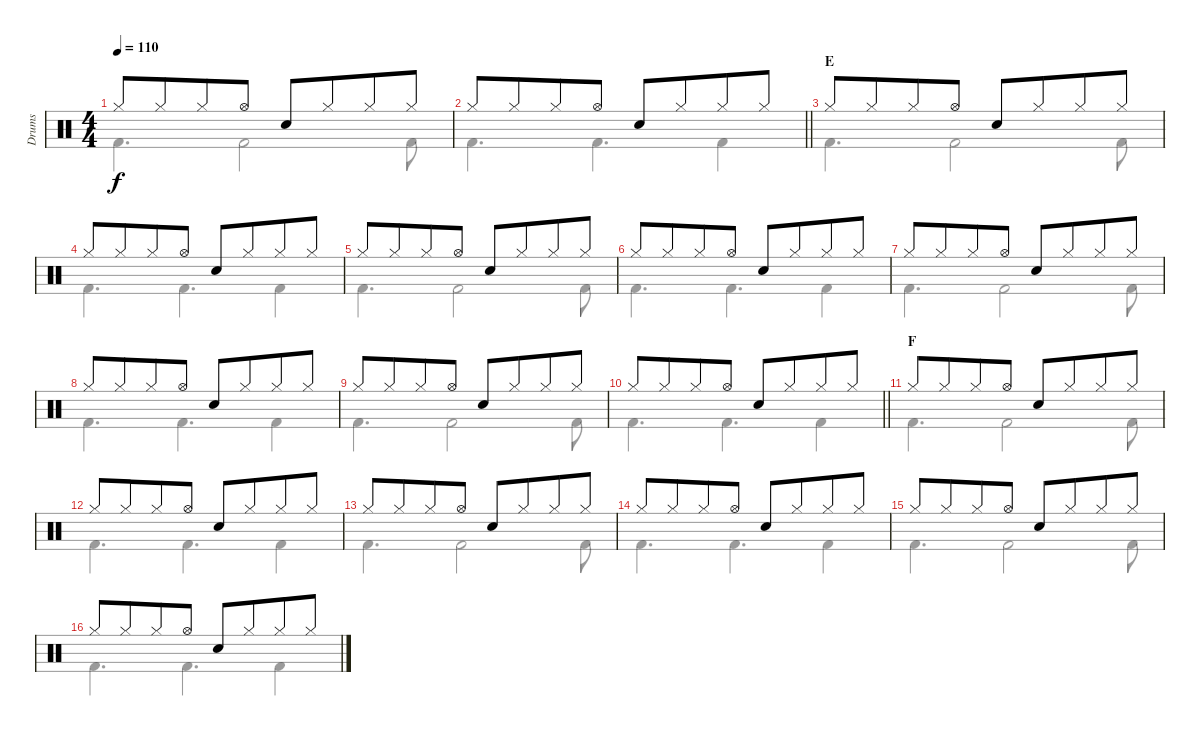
\track ("Drums" "Drums") {instrument percussion}
\staff {score}
\articulation defaults
\voice
\ts (4 4)
\tempo 110
\clef neutral
\ks c "Hi-Hat (closed)".8{dy f} "Hi-Hat (closed)".8{beam merge} "Hi-Hat (closed)".8 "Hi-Hat (open)".8 "Snare (hit) 2".8 "Hi-Hat (closed)".8{beam merge} "Hi-Hat (closed)".8 "Hi-Hat (closed)".8
|
\barLineRight lightlight "Hi-Hat (closed)".8 "Hi-Hat (closed)".8{beam merge} "Hi-Hat (closed)".8 "Hi-Hat (open)".8 "Snare (hit) 2".8 "Hi-Hat (closed)".8{beam merge} "Hi-Hat (closed)".8 "Hi-Hat (closed)".8
|
\section ("" "E")
"Hi-Hat (closed)".8 "Hi-Hat (closed)".8{beam merge} "Hi-Hat (closed)".8 "Hi-Hat (open)".8 "Snare (hit) 2".8 "Hi-Hat (closed)".8{beam merge} "Hi-Hat (closed)".8 "Hi-Hat (closed)".8 |
"Hi-Hat (closed)".8 "Hi-Hat (closed)".8{beam merge} "Hi-Hat (closed)".8 "Hi-Hat (open)".8 "Snare (hit) 2".8 "Hi-Hat (closed)".8{beam merge} "Hi-Hat (closed)".8 "Hi-Hat (closed)".8 |
"Hi-Hat (closed)".8 "Hi-Hat (closed)".8{beam merge} "Hi-Hat (closed)".8 "Hi-Hat (open)".8 "Snare (hit) 2".8 "Hi-Hat (closed)".8{beam merge} "Hi-Hat (closed)".8 "Hi-Hat (closed)".8 |
"Hi-Hat (closed)".8 "Hi-Hat (closed)".8{beam merge} "Hi-Hat (closed)".8 "Hi-Hat (open)".8 "Snare (hit) 2".8 "Hi-Hat (closed)".8{beam merge} "Hi-Hat (closed)".8 "Hi-Hat (closed)".8 |
"Hi-Hat (closed)".8 "Hi-Hat (closed)".8{beam merge} "Hi-Hat (closed)".8 "Hi-Hat (open)".8 "Snare (hit) 2".8 "Hi-Hat (closed)".8{beam merge} "Hi-Hat (closed)".8 "Hi-Hat (closed)".8 |
"Hi-Hat (closed)".8 "Hi-Hat (closed)".8{beam merge} "Hi-Hat (closed)".8 "Hi-Hat (open)".8 "Snare (hit) 2".8 "Hi-Hat (closed)".8{beam merge} "Hi-Hat (closed)".8 "Hi-Hat (closed)".8 |
"Hi-Hat (closed)".8 "Hi-Hat (closed)".8{beam merge} "Hi-Hat (closed)".8 "Hi-Hat (open)".8 "Snare (hit) 2".8 "Hi-Hat (closed)".8{beam merge} "Hi-Hat (closed)".8 "Hi-Hat (closed)".8 |
\barLineRight lightlight "Hi-Hat (closed)".8 "Hi-Hat (closed)".8{beam merge} "Hi-Hat (closed)".8 "Hi-Hat (open)".8 "Snare (hit) 2".8 "Hi-Hat (closed)".8{beam merge} "Hi-Hat (closed)".8 "Hi-Hat (closed)".8
|
\section ("" "F")
"Hi-Hat (closed)".8 "Hi-Hat (closed)".8{beam merge} "Hi-Hat (closed)".8 "Hi-Hat (open)".8 "Snare (hit) 2".8 "Hi-Hat (closed)".8{beam merge} "Hi-Hat (closed)".8 "Hi-Hat (closed)".8 |
"Hi-Hat (closed)".8 "Hi-Hat (closed)".8{beam merge} "Hi-Hat (closed)".8 "Hi-Hat (open)".8 "Snare (hit) 2".8 "Hi-Hat (closed)".8{beam merge} "Hi-Hat (closed)".8 "Hi-Hat (closed)".8 |
"Hi-Hat (closed)".8 "Hi-Hat (closed)".8{beam merge} "Hi-Hat (closed)".8 "Hi-Hat (open)".8 "Snare (hit) 2".8 "Hi-Hat (closed)".8{beam merge} "Hi-Hat (closed)".8 "Hi-Hat (closed)".8 |
"Hi-Hat (closed)".8 "Hi-Hat (closed)".8{beam merge} "Hi-Hat (closed)".8 "Hi-Hat (open)".8 "Snare (hit) 2".8 "Hi-Hat (closed)".8{beam merge} "Hi-Hat (closed)".8 "Hi-Hat (closed)".8 |
"Hi-Hat (closed)".8 "Hi-Hat (closed)".8{beam merge} "Hi-Hat (closed)".8 "Hi-Hat (open)".8 "Snare (hit) 2".8 "Hi-Hat (closed)".8{beam merge} "Hi-Hat (closed)".8 "Hi-Hat (closed)".8 |
"Hi-Hat (closed)".8 "Hi-Hat (closed)".8{beam merge} "Hi-Hat (closed)".8 "Hi-Hat (open)".8 "Snare (hit) 2".8 "Hi-Hat (closed)".8{beam merge} "Hi-Hat (closed)".8 "Hi-Hat (closed)".8
\voice
\clef neutral
\ottava regular
\simile none
\ks c "Kick (hit) 2".4{d dy f} "Kick (hit) 2".2 "Kick (hit) 2".8
|
\barLineRight lightlight "Kick (hit) 2".4{d} "Kick (hit) 2".4{d} "Kick (hit) 2".4
|
"Kick (hit) 2".4{d} "Kick (hit) 2".2 "Kick (hit) 2".8 |
"Kick (hit) 2".4{d} "Kick (hit) 2".4{d} "Kick (hit) 2".4 |
"Kick (hit) 2".4{d} "Kick (hit) 2".2 "Kick (hit) 2".8 |
"Kick (hit) 2".4{d} "Kick (hit) 2".4{d} "Kick (hit) 2".4 |
"Kick (hit) 2".4{d} "Kick (hit) 2".2 "Kick (hit) 2".8 |
"Kick (hit) 2".4{d} "Kick (hit) 2".4{d} "Kick (hit) 2".4 |
"Kick (hit) 2".4{d} "Kick (hit) 2".2 "Kick (hit) 2".8 |
\barLineRight lightlight "Kick (hit) 2".4{d} "Kick (hit) 2".4{d} "Kick (hit) 2".4
|
"Kick (hit) 2".4{d} "Kick (hit) 2".2 "Kick (hit) 2".8 |
"Kick (hit) 2".4{d} "Kick (hit) 2".4{d} "Kick (hit) 2".4 |
"Kick (hit) 2".4{d} "Kick (hit) 2".2 "Kick (hit) 2".8 |
"Kick (hit) 2".4{d} "Kick (hit) 2".4{d} "Kick (hit) 2".4 |
"Kick (hit) 2".4{d} "Kick (hit) 2".2 "Kick (hit) 2".8 |
"Kick (hit) 2".4{d} "Kick (hit) 2".4{d} "Kick (hit) 2".4
